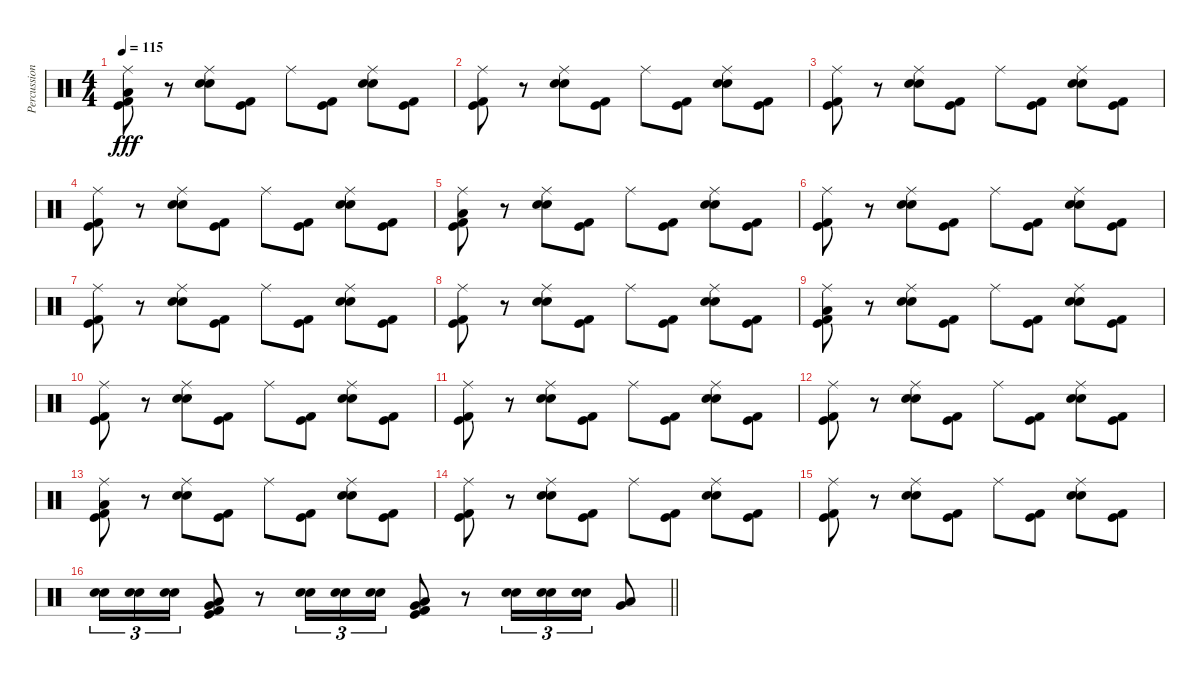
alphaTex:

\track ("Percussion" "Percussion") {instrument percussion}
\staff {score}
\articulation defaults
\ts (4 4)
\tempo 115
\clef neutral
\ks c
("Ride (middle)" "Low Floor Tom (hit)" "Kick (hit) 2" "Kick (hit)").8{dy fff} r.8 ("Ride (middle)" "Electric Snare (hit)" "Snare (hit) 2").8 ("Kick (hit) 2" "Kick (hit)").8 "Ride (middle)".8 ("Kick (hit) 2" "Kick (hit)").8 ("Ride (middle)" "Electric Snare (hit)" "Snare (hit) 2").8 ("Kick (hit) 2" "Kick (hit)").8 |
("Ride (middle)" "Kick (hit) 2" "Kick (hit)").8 r.8 ("Ride (middle)" "Electric Snare (hit)" "Snare (hit) 2").8 ("Kick (hit) 2" "Kick (hit)").8 "Ride (middle)".8 ("Kick (hit) 2" "Kick (hit)").8 ("Ride (middle)" "Electric Snare (hit)" "Snare (hit) 2").8 ("Kick (hit) 2" "Kick (hit)").8 |
("Ride (middle)" "Kick (hit) 2" "Kick (hit)").8 r.8 ("Ride (middle)" "Electric Snare (hit)" "Snare (hit) 2").8 ("Kick (hit) 2" "Kick (hit)").8 "Ride (middle)".8 ("Kick (hit) 2" "Kick (hit)").8 ("Ride (middle)" "Electric Snare (hit)" "Snare (hit) 2").8 ("Kick (hit) 2" "Kick (hit)").8 |
("Ride (middle)" "Kick (hit) 2" "Kick (hit)").8 r.8 ("Ride (middle)" "Electric Snare (hit)" "Snare (hit) 2").8 ("Kick (hit) 2" "Kick (hit)").8 "Ride (middle)".8 ("Kick (hit) 2" "Kick (hit)").8 ("Ride (middle)" "Electric Snare (hit)" "Snare (hit) 2").8 ("Kick (hit) 2" "Kick (hit)").8 |
("Ride (middle)" "Low Floor Tom (hit)" "Kick (hit) 2" "Kick (hit)").8 r.8 ("Ride (middle)" "Electric Snare (hit)" "Snare (hit) 2").8 ("Kick (hit) 2" "Kick (hit)").8 "Ride (middle)".8 ("Kick (hit) 2" "Kick (hit)").8 ("Ride (middle)" "Electric Snare (hit)" "Snare (hit) 2").8 ("Kick (hit) 2" "Kick (hit)").8 |
("Ride (middle)" "Kick (hit) 2" "Kick (hit)").8 r.8 ("Ride (middle)" "Electric Snare (hit)" "Snare (hit) 2").8 ("Kick (hit) 2" "Kick (hit)").8 "Ride (middle)".8 ("Kick (hit) 2" "Kick (hit)").8 ("Ride (middle)" "Electric Snare (hit)" "Snare (hit) 2").8 ("Kick (hit) 2" "Kick (hit)").8 |
("Ride (middle)" "Kick (hit) 2" "Kick (hit)").8 r.8 ("Ride (middle)" "Electric Snare (hit)" "Snare (hit) 2").8 ("Kick (hit) 2" "Kick (hit)").8 "Ride (middle)".8 ("Kick (hit) 2" "Kick (hit)").8 ("Ride (middle)" "Electric Snare (hit)" "Snare (hit) 2").8 ("Kick (hit) 2" "Kick (hit)").8 |
("Ride (middle)" "Kick (hit) 2" "Kick (hit)").8 r.8 ("Ride (middle)" "Electric Snare (hit)" "Snare (hit) 2").8 ("Kick (hit) 2" "Kick (hit)").8 "Ride (middle)".8 ("Kick (hit) 2" "Kick (hit)").8 ("Ride (middle)" "Electric Snare (hit)" "Snare (hit) 2").8 ("Kick (hit) 2" "Kick (hit)").8 |
("Ride (middle)" "Low Floor Tom (hit)" "Kick (hit) 2" "Kick (hit)").8 r.8 ("Ride (middle)" "Electric Snare (hit)" "Snare (hit) 2").8 ("Kick (hit) 2" "Kick (hit)").8 "Ride (middle)".8 ("Kick (hit) 2" "Kick (hit)").8 ("Ride (middle)" "Electric Snare (hit)" "Snare (hit) 2").8 ("Kick (hit) 2" "Kick (hit)").8 |
("Ride (middle)" "Kick (hit) 2" "Kick (hit)").8 r.8 ("Ride (middle)" "Electric Snare (hit)" "Snare (hit) 2").8 ("Kick (hit) 2" "Kick (hit)").8 "Ride (middle)".8 ("Kick (hit) 2" "Kick (hit)").8 ("Ride (middle)" "Electric Snare (hit)" "Snare (hit) 2").8 ("Kick (hit) 2" "Kick (hit)").8 |
("Ride (middle)" "Kick (hit) 2" "Kick (hit)").8 r.8 ("Ride (middle)" "Electric Snare (hit)" "Snare (hit) 2").8 ("Kick (hit) 2" "Kick (hit)").8 "Ride (middle)".8 ("Kick (hit) 2" "Kick (hit)").8 ("Ride (middle)" "Electric Snare (hit)" "Snare (hit) 2").8 ("Kick (hit) 2" "Kick (hit)").8 |
("Ride (middle)" "Kick (hit) 2" "Kick (hit)").8 r.8 ("Ride (middle)" "Electric Snare (hit)" "Snare (hit) 2").8 ("Kick (hit) 2" "Kick (hit)").8 "Ride (middle)".8 ("Kick (hit) 2" "Kick (hit)").8 ("Ride (middle)" "Electric Snare (hit)" "Snare (hit) 2").8 ("Kick (hit) 2" "Kick (hit)").8 |
("Ride (middle)" "Low Floor Tom (hit)" "Kick (hit) 2" "Kick (hit)").8 r.8 ("Ride (middle)" "Electric Snare (hit)" "Snare (hit) 2").8 ("Kick (hit) 2" "Kick (hit)").8 "Ride (middle)".8 ("Kick (hit) 2" "Kick (hit)").8 ("Ride (middle)" "Electric Snare (hit)" "Snare (hit) 2").8 ("Kick (hit) 2" "Kick (hit)").8 |
("Ride (middle)" "Kick (hit) 2" "Kick (hit)").8 r.8 ("Ride (middle)" "Electric Snare (hit)" "Snare (hit) 2").8 ("Kick (hit) 2" "Kick (hit)").8 "Ride (middle)".8 ("Kick (hit) 2" "Kick (hit)").8 ("Ride (middle)" "Electric Snare (hit)" "Snare (hit) 2").8 ("Kick (hit) 2" "Kick (hit)").8 |
("Ride (middle)" "Kick (hit) 2" "Kick (hit)").8 r.8 ("Ride (middle)" "Electric Snare (hit)" "Snare (hit) 2").8 ("Kick (hit) 2" "Kick (hit)").8 "Ride (middle)".8 ("Kick (hit) 2" "Kick (hit)").8 ("Ride (middle)" "Electric Snare (hit)" "Snare (hit) 2").8 ("Kick (hit) 2" "Kick (hit)").8 |
\barLineRight lightlight
("Electric Snare (hit)" "Snare (hit) 2").16{tu (3 2)} ("Electric Snare (hit)" "Snare (hit) 2").16{tu (3 2)} ("Electric Snare (hit)" "Snare (hit) 2").16{tu (3 2)} ("Very Low Tom (hit)" "Low Floor Tom (hit)" "Kick (hit) 2" "Kick (hit)").8 r.8 ("Electric Snare (hit)" "Snare (hit) 2").16{tu (3 2)} ("Electric Snare (hit)" "Snare (hit) 2").16{tu (3 2)} ("Electric Snare (hit)" "Snare (hit) 2").16{tu (3 2)} ("Very Low Tom (hit)" "Low Floor Tom (hit)" "Kick (hit) 2" "Kick (hit)").8 r.8 ("Electric Snare (hit)" "Snare (hit) 2").16{tu (3 2)} ("Electric Snare (hit)" "Snare (hit) 2").16{tu (3 2)} ("Electric Snare (hit)" "Snare (hit) 2").16{tu (3 2)} ("Very Low Tom (hit)" "Low Floor Tom (hit)").8
